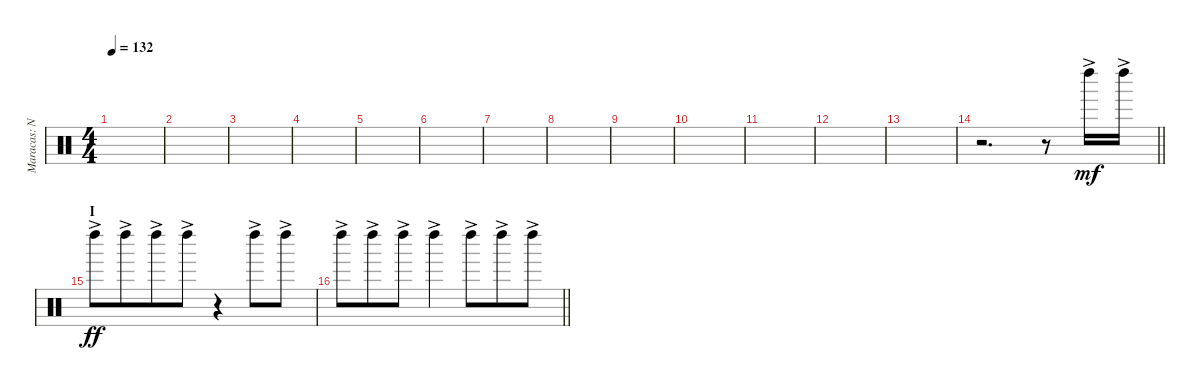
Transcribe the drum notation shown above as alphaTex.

\track ("Maracas: Nigel Ollson" "Maracas: N") {instrument percussion}
\staff {score}
\articulation defaults
\ts (4 4)
\tempo 132
\clef neutral
\ks c
|
|
|
|
|
|
|
|
|
|
|
|
|
\barLineRight lightlight
r.2{d} r.8 "Left Maraca (hit)"{ac}.16{dy mf} "Left Maraca (hit)"{ac}.16 |
\section ("" "I")
"Left Maraca (hit)"{ac}.8{dy ff} "Left Maraca (hit)"{ac}.8{beam merge} "Left Maraca (hit)"{ac}.8 "Left Maraca (hit)"{ac}.8 r.4 "Left Maraca (hit)"{ac}.8 "Left Maraca (hit)"{ac}.8 |
\barLineRight lightlight "Left Maraca (hit)"{ac}.8 "Left Maraca (hit)"{ac}.8{beam merge} "Left Maraca (hit)"{ac}.8 "Left Maraca (hit)"{ac}.4 "Left Maraca (hit)"{ac}.8{beam merge} "Left Maraca (hit)"{ac}.8 "Left Maraca (hit)"{ac}.8
